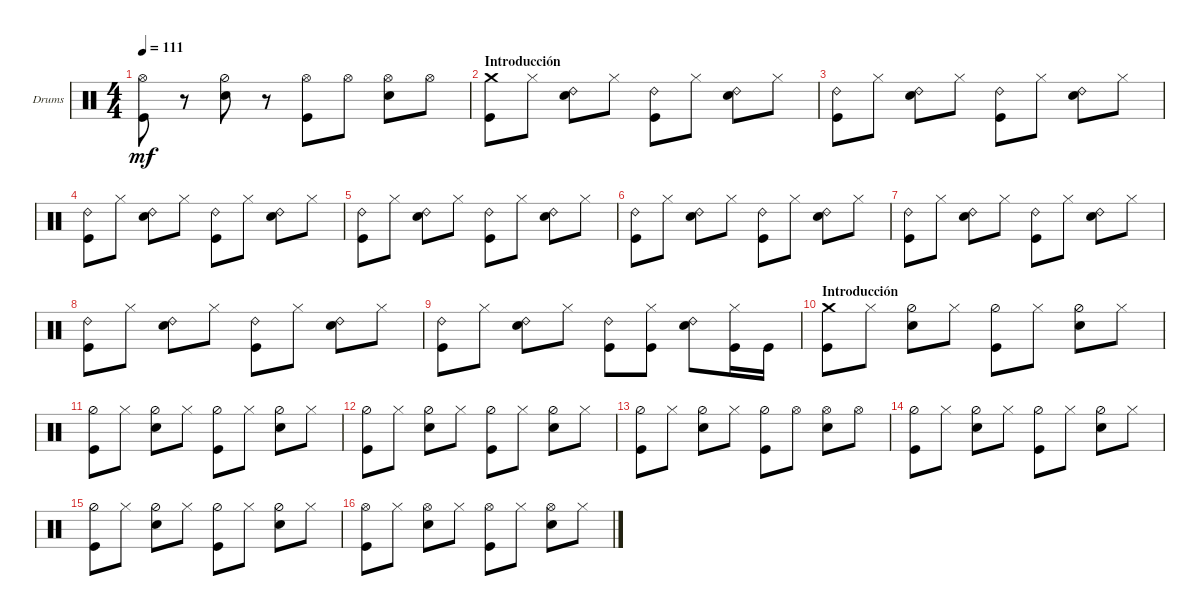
\defaultSystemsLayout 4
\bracketExtendMode groupsimilarinstruments
\firstSystemTrackNameOrientation horizontal
\otherSystemsTrackNameOrientation horizontal
\track ("Drumkit" "Drums") {instrument percussion}
\staff {score}
\articulation defaults
\ts (4 4)
\tempo 111
\clef neutral
\scale
0.333333
\ks c
("Kick (hit)" "Hi-Hat (open)").8{dy mf} r.8 ("Snare (hit) 2" "Hi-Hat (half)").8 r.8 ("Kick (hit)" "Hi-Hat (open)").8 "Hi-Hat (open)".8 ("Snare (hit) 2" "Hi-Hat (open)").8 "Hi-Hat (open)".8 |
\section ("" "Introducción")
\scale
0.333333 ("Kick (hit)" "Crash medium (hit)").8 "Hi-Hat (closed)".8 ("Snare (hit) 2" "Ride (bell) 2").8 "Hi-Hat (closed)".8 ("Kick (hit)" "Ride (bell) 2").8 "Hi-Hat (closed)".8 ("Snare (hit) 2" "Ride (bell) 2").8 "Hi-Hat (closed)".8 |
\scale
0.333333 ("Kick (hit)" "Ride (bell) 2").8 "Hi-Hat (closed)".8 ("Snare (hit) 2" "Ride (bell) 2").8 "Hi-Hat (closed)".8 ("Kick (hit)" "Ride (bell) 2").8 "Hi-Hat (closed)".8 ("Snare (hit) 2" "Ride (bell) 2").8 "Hi-Hat (closed)".8 |
\scale
0.333333 ("Kick (hit)" "Ride (bell) 2").8 "Hi-Hat (closed)".8 ("Snare (hit) 2" "Ride (bell) 2").8 "Hi-Hat (closed)".8 ("Kick (hit)" "Ride (bell) 2").8 "Hi-Hat (closed)".8 ("Snare (hit) 2" "Ride (bell) 2").8 "Hi-Hat (closed)".8 |
\scale
0.333333 ("Kick (hit)" "Ride (bell) 2").8 "Hi-Hat (closed)".8 ("Snare (hit) 2" "Ride (bell) 2").8 "Hi-Hat (closed)".8 ("Kick (hit)" "Ride (bell) 2").8 "Hi-Hat (closed)".8 ("Snare (hit) 2" "Ride (bell) 2").8 "Hi-Hat (closed)".8 |
\scale
0.333333 ("Kick (hit)" "Ride (bell) 2").8 "Hi-Hat (closed)".8 ("Snare (hit) 2" "Ride (bell) 2").8 "Hi-Hat (closed)".8 ("Kick (hit)" "Ride (bell) 2").8 "Hi-Hat (closed)".8 ("Snare (hit) 2" "Ride (bell) 2").8 "Hi-Hat (closed)".8 |
\scale
0.333333 ("Kick (hit)" "Ride (bell) 2").8 "Hi-Hat (closed)".8 ("Snare (hit) 2" "Ride (bell) 2").8 "Hi-Hat (closed)".8 ("Kick (hit)" "Ride (bell) 2").8 "Hi-Hat (closed)".8 ("Snare (hit) 2" "Ride (bell) 2").8 "Hi-Hat (closed)".8 |
\scale
0.333333 ("Kick (hit)" "Ride (bell) 2").8 "Hi-Hat (closed)".8 ("Snare (hit) 2" "Ride (bell) 2").8 "Hi-Hat (closed)".8 ("Kick (hit)" "Ride (bell) 2").8 "Hi-Hat (closed)".8 ("Snare (hit) 2" "Ride (bell) 2").8 "Hi-Hat (closed)".8 |
\scale
0.333333 ("Kick (hit)" "Ride (bell) 2").8 "Hi-Hat (closed)".8 ("Snare (hit) 2" "Ride (bell) 2").8 "Hi-Hat (closed)".8 ("Kick (hit)" "Ride (bell) 2").8 ("Hi-Hat (closed)" "Kick (hit)").8 ("Snare (hit) 2" "Ride (bell) 2").8 ("Hi-Hat (closed)" "Kick (hit)").16 "Kick (hit)".16 |
\section ("" "Introducción")
\scale
0.333333 ("Kick (hit)" "Crash medium (hit)").8 "Hi-Hat (closed)".8 ("Snare (hit) 2" "Hi-Hat (half)").8 "Hi-Hat (closed)".8 ("Kick (hit)" "Hi-Hat (half)").8 "Hi-Hat (closed)".8 ("Snare (hit) 2" "Hi-Hat (half)").8 "Hi-Hat (closed)".8 |
\scale
0.333333 ("Kick (hit)" "Hi-Hat (half)").8 "Hi-Hat (closed)".8 ("Snare (hit) 2" "Hi-Hat (half)").8 "Hi-Hat (closed)".8 ("Kick (hit)" "Hi-Hat (half)").8 "Hi-Hat (closed)".8 ("Snare (hit) 2" "Hi-Hat (half)").8 "Hi-Hat (closed)".8 |
\scale
0.333333 ("Kick (hit)" "Hi-Hat (half)").8 "Hi-Hat (closed)".8 ("Snare (hit) 2" "Hi-Hat (half)").8 "Hi-Hat (closed)".8 ("Kick (hit)" "Hi-Hat (half)").8 "Hi-Hat (closed)".8 ("Snare (hit) 2" "Hi-Hat (half)").8 "Hi-Hat (closed)".8 |
\scale
0.333333 ("Kick (hit)" "Hi-Hat (half)").8 "Hi-Hat (closed)".8 ("Snare (hit) 2" "Hi-Hat (half)").8 "Hi-Hat (closed)".8 ("Kick (hit)" "Hi-Hat (half)").8 "Hi-Hat (open)".8 ("Snare (hit) 2" "Hi-Hat (open)").8 "Hi-Hat (open)".8 |
\scale
0.333333 ("Kick (hit)" "Hi-Hat (half)").8 "Hi-Hat (closed)".8 ("Snare (hit) 2" "Hi-Hat (half)").8 "Hi-Hat (closed)".8 ("Kick (hit)" "Hi-Hat (half)").8 "Hi-Hat (closed)".8 ("Snare (hit) 2" "Hi-Hat (half)").8 "Hi-Hat (closed)".8 |
\scale
0.333333 ("Kick (hit)" "Hi-Hat (half)").8 "Hi-Hat (closed)".8 ("Snare (hit) 2" "Hi-Hat (half)").8 "Hi-Hat (closed)".8 ("Kick (hit)" "Hi-Hat (half)").8 "Hi-Hat (closed)".8 ("Snare (hit) 2" "Hi-Hat (half)").8 "Hi-Hat (closed)".8 |
\scale
0.333333 ("Kick (hit)" "Hi-Hat (open)").8 "Hi-Hat (closed)".8 ("Snare (hit) 2" "Hi-Hat (open)").8 "Hi-Hat (closed)".8 ("Kick (hit)" "Hi-Hat (open)").8 "Hi-Hat (closed)".8 ("Snare (hit) 2" "Hi-Hat (open)").8 "Hi-Hat (closed)".8
